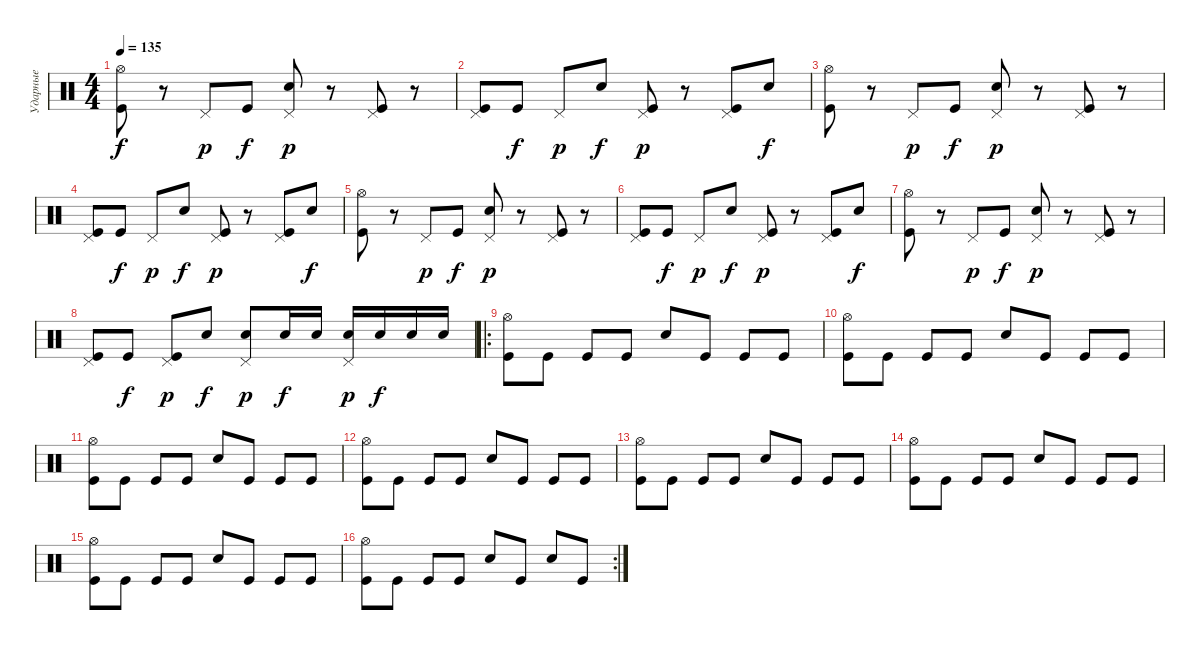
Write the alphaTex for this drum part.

\track ("Ударные" "Ударные") {instrument percussion}
\staff {score}
\articulation defaults
\ts (4 4)
\tempo 135
\clef neutral
\ks c
("Kick (hit)" "Hi-Hat (open)").8{dy f} r.8 "Pedal Hi-Hat (hit)".8{dy p} "Kick (hit)".8{dy f} ("Snare (hit) 2" "Pedal Hi-Hat (hit)").8{dy p} r.8 ("Kick (hit)" "Pedal Hi-Hat (hit)").8 r.8 |
("Kick (hit)" "Pedal Hi-Hat (hit)").8 "Kick (hit)".8{dy f} "Pedal Hi-Hat (hit)".8{dy p} "Snare (hit) 2".8{dy f} ("Kick (hit)" "Pedal Hi-Hat (hit)").8{dy p} r.8 ("Kick (hit)" "Pedal Hi-Hat (hit)").8 "Snare (hit) 2".8{dy f} |
("Kick (hit)" "Hi-Hat (open)").8 r.8 "Pedal Hi-Hat (hit)".8{dy p} "Kick (hit)".8{dy f} ("Snare (hit) 2" "Pedal Hi-Hat (hit)").8{dy p} r.8 ("Kick (hit)" "Pedal Hi-Hat (hit)").8 r.8 |
("Kick (hit)" "Pedal Hi-Hat (hit)").8 "Kick (hit)".8{dy f} "Pedal Hi-Hat (hit)".8{dy p} "Snare (hit) 2".8{dy f} ("Kick (hit)" "Pedal Hi-Hat (hit)").8{dy p} r.8 ("Kick (hit)" "Pedal Hi-Hat (hit)").8 "Snare (hit) 2".8{dy f} |
("Kick (hit)" "Hi-Hat (open)").8 r.8 "Pedal Hi-Hat (hit)".8{dy p} "Kick (hit)".8{dy f} ("Snare (hit) 2" "Pedal Hi-Hat (hit)").8{dy p} r.8 ("Kick (hit)" "Pedal Hi-Hat (hit)").8 r.8 |
("Kick (hit)" "Pedal Hi-Hat (hit)").8 "Kick (hit)".8{dy f} "Pedal Hi-Hat (hit)".8{dy p} "Snare (hit) 2".8{dy f} ("Kick (hit)" "Pedal Hi-Hat (hit)").8{dy p} r.8 ("Kick (hit)" "Pedal Hi-Hat (hit)").8 "Snare (hit) 2".8{dy f} |
("Kick (hit)" "Hi-Hat (open)").8 r.8 "Pedal Hi-Hat (hit)".8{dy p} "Kick (hit)".8{dy f} ("Snare (hit) 2" "Pedal Hi-Hat (hit)").8{dy p} r.8 ("Kick (hit)" "Pedal Hi-Hat (hit)").8 r.8 |
("Kick (hit)" "Pedal Hi-Hat (hit)").8 "Kick (hit)".8{dy f} ("Kick (hit)" "Pedal Hi-Hat (hit)").8{dy p} "Snare (hit) 2".8{dy f} ("Snare (hit) 2" "Pedal Hi-Hat (hit)").8{dy p} "Snare (hit) 2".16{dy f} "Snare (hit) 2".16 ("Snare (hit) 2" "Pedal Hi-Hat (hit)").16{dy p} "Snare (hit) 2".16{dy f} "Snare (hit) 2".16 "Snare (hit) 2".16 |
\ro
("Kick (hit)" "Hi-Hat (open)").8 "Kick (hit)".8 "Kick (hit)".8 "Kick (hit)".8 "Snare (hit) 2".8 "Kick (hit)".8 "Kick (hit)".8 "Kick (hit)".8 |
("Kick (hit)" "Hi-Hat (open)").8 "Kick (hit)".8 "Kick (hit)".8 "Kick (hit)".8 "Snare (hit) 2".8 "Kick (hit)".8 "Kick (hit)".8 "Kick (hit)".8 |
("Kick (hit)" "Hi-Hat (open)").8 "Kick (hit)".8 "Kick (hit)".8 "Kick (hit)".8 "Snare (hit) 2".8 "Kick (hit)".8 "Kick (hit)".8 "Kick (hit)".8 |
("Kick (hit)" "Hi-Hat (open)").8 "Kick (hit)".8 "Kick (hit)".8 "Kick (hit)".8 "Snare (hit) 2".8 "Kick (hit)".8 "Kick (hit)".8 "Kick (hit)".8 |
("Kick (hit)" "Hi-Hat (open)").8 "Kick (hit)".8 "Kick (hit)".8 "Kick (hit)".8 "Snare (hit) 2".8 "Kick (hit)".8 "Kick (hit)".8 "Kick (hit)".8 |
("Kick (hit)" "Hi-Hat (open)").8 "Kick (hit)".8 "Kick (hit)".8 "Kick (hit)".8 "Snare (hit) 2".8 "Kick (hit)".8 "Kick (hit)".8 "Kick (hit)".8 |
("Kick (hit)" "Hi-Hat (open)").8 "Kick (hit)".8 "Kick (hit)".8 "Kick (hit)".8 "Snare (hit) 2".8 "Kick (hit)".8 "Kick (hit)".8 "Kick (hit)".8 |
\rc 2
("Kick (hit)" "Hi-Hat (open)").8 "Kick (hit)".8 "Kick (hit)".8 "Kick (hit)".8 "Snare (hit) 2".8 "Kick (hit)".8 "Snare (hit) 2".8 "Kick (hit)".8
